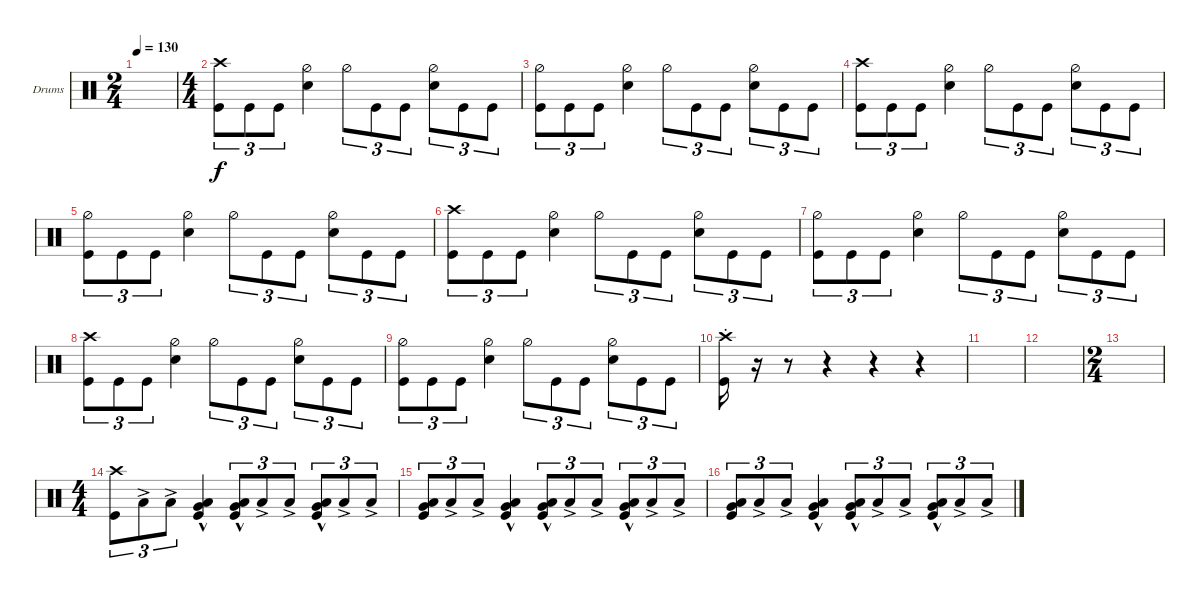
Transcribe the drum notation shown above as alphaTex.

\bracketExtendMode groupsimilarinstruments
\firstSystemTrackNameOrientation horizontal
\otherSystemsTrackNameOrientation horizontal
\track ("Drumkit" "Drums") {instrument percussion}
\staff {score}
\articulation defaults
\ts (2 4)
\tempo 130
\clef neutral
\ks c
|
\ts (4 4)
("Crash high (hit)" "Kick (hit)").8{tu (3 2)} "Kick (hit)".8{tu (3 2)} "Kick (hit)".8{tu (3 2)} ("Snare (hit) 2" "Hi-Hat (half)").4 "Hi-Hat (half)".8{tu (3 2)} "Kick (hit)".8{tu (3 2)} "Kick (hit)".8{tu (3 2)} ("Hi-Hat (half)" "Snare (hit) 2").8{tu (3 2)} "Kick (hit)".8{tu (3 2)} "Kick (hit)".8{tu (3 2)} |
("Hi-Hat (half)" "Kick (hit)").8{tu (3 2)} "Kick (hit)".8{tu (3 2)} "Kick (hit)".8{tu (3 2)} ("Snare (hit) 2" "Hi-Hat (half)").4 "Hi-Hat (half)".8{tu (3 2)} "Kick (hit)".8{tu (3 2)} "Kick (hit)".8{tu (3 2)} ("Snare (hit) 2" "Hi-Hat (half)").8{tu (3 2)} "Kick (hit)".8{tu (3 2)} "Kick (hit)".8{tu (3 2)} |
("Crash high (hit)" "Kick (hit)").8{tu (3 2)} "Kick (hit)".8{tu (3 2)} "Kick (hit)".8{tu (3 2)} ("Snare (hit) 2" "Hi-Hat (half)").4 "Hi-Hat (half)".8{tu (3 2)} "Kick (hit)".8{tu (3 2)} "Kick (hit)".8{tu (3 2)} ("Hi-Hat (half)" "Snare (hit) 2").8{tu (3 2)} "Kick (hit)".8{tu (3 2)} "Kick (hit)".8{tu (3 2)} |
("Hi-Hat (half)" "Kick (hit)").8{tu (3 2)} "Kick (hit)".8{tu (3 2)} "Kick (hit)".8{tu (3 2)} ("Snare (hit) 2" "Hi-Hat (half)").4 "Hi-Hat (half)".8{tu (3 2)} "Kick (hit)".8{tu (3 2)} "Kick (hit)".8{tu (3 2)} ("Snare (hit) 2" "Hi-Hat (half)").8{tu (3 2)} "Kick (hit)".8{tu (3 2)} "Kick (hit)".8{tu (3 2)} |
("Crash high (hit)" "Kick (hit)").8{tu (3 2)} "Kick (hit)".8{tu (3 2)} "Kick (hit)".8{tu (3 2)} ("Snare (hit) 2" "Hi-Hat (half)").4 "Hi-Hat (half)".8{tu (3 2)} "Kick (hit)".8{tu (3 2)} "Kick (hit)".8{tu (3 2)} ("Hi-Hat (half)" "Snare (hit) 2").8{tu (3 2)} "Kick (hit)".8{tu (3 2)} "Kick (hit)".8{tu (3 2)} |
("Hi-Hat (half)" "Kick (hit)").8{tu (3 2)} "Kick (hit)".8{tu (3 2)} "Kick (hit)".8{tu (3 2)} ("Snare (hit) 2" "Hi-Hat (half)").4 "Hi-Hat (half)".8{tu (3 2)} "Kick (hit)".8{tu (3 2)} "Kick (hit)".8{tu (3 2)} ("Snare (hit) 2" "Hi-Hat (half)").8{tu (3 2)} "Kick (hit)".8{tu (3 2)} "Kick (hit)".8{tu (3 2)} |
("Crash high (hit)" "Kick (hit)").8{tu (3 2)} "Kick (hit)".8{tu (3 2)} "Kick (hit)".8{tu (3 2)} ("Snare (hit) 2" "Hi-Hat (half)").4 "Hi-Hat (half)".8{tu (3 2)} "Kick (hit)".8{tu (3 2)} "Kick (hit)".8{tu (3 2)} ("Hi-Hat (half)" "Snare (hit) 2").8{tu (3 2)} "Kick (hit)".8{tu (3 2)} "Kick (hit)".8{tu (3 2)} |
("Hi-Hat (half)" "Kick (hit)").8{tu (3 2)} "Kick (hit)".8{tu (3 2)} "Kick (hit)".8{tu (3 2)} ("Snare (hit) 2" "Hi-Hat (half)").4 "Hi-Hat (half)".8{tu (3 2)} "Kick (hit)".8{tu (3 2)} "Kick (hit)".8{tu (3 2)} ("Snare (hit) 2" "Hi-Hat (half)").8{tu (3 2)} "Kick (hit)".8{tu (3 2)} "Kick (hit)".8{tu (3 2)} |
("Crash high (hit)"{st} "Kick (hit)").16 r.16 r.8 r.4 r.4 r.4 |
|
|
\ts (2 4)
|
\ts (4 4)
("Crash high (hit)" "Kick (hit)").8{tu (3 2)} "Low Tom (hit)"{ac}.8{tu (3 2)} "Low Tom (hit)"{ac}.8{tu (3 2)} ("Low Tom (hit)"{hac} "Kick (hit)" "Very Low Tom (hit)").4 ("Low Tom (hit)"{hac} "Kick (hit)" "Very Low Tom (hit)").8{tu (3 2)} "Low Tom (hit)"{ac}.8{tu (3 2)} "Low Tom (hit)"{ac}.8{tu (3 2)} ("Low Tom (hit)"{hac} "Kick (hit)" "Very Low Tom (hit)").8{tu (3 2)} "Low Tom (hit)"{ac}.8{tu (3 2)} "Low Tom (hit)"{ac}.8{tu (3 2)} |
("Kick (hit)" "Low Tom (hit)" "Very Low Tom (hit)").8{tu (3 2)} "Low Tom (hit)"{ac}.8{tu (3 2)} "Low Tom (hit)"{ac}.8{tu (3 2)} ("Low Tom (hit)"{hac} "Kick (hit)" "Very Low Tom (hit)").4 ("Low Tom (hit)"{hac} "Kick (hit)" "Very Low Tom (hit)").8{tu (3 2)} "Low Tom (hit)"{ac}.8{tu (3 2)} "Low Tom (hit)"{ac}.8{tu (3 2)} ("Low Tom (hit)"{hac} "Kick (hit)" "Very Low Tom (hit)").8{tu (3 2)} "Low Tom (hit)"{ac}.8{tu (3 2)} "Low Tom (hit)"{ac}.8{tu (3 2)} |
("Kick (hit)" "Low Tom (hit)" "Very Low Tom (hit)").8{tu (3 2)} "Low Tom (hit)"{ac}.8{tu (3 2)} "Low Tom (hit)"{ac}.8{tu (3 2)} ("Low Tom (hit)"{hac} "Kick (hit)" "Very Low Tom (hit)").4 ("Low Tom (hit)"{hac} "Kick (hit)" "Very Low Tom (hit)").8{tu (3 2)} "Low Tom (hit)"{ac}.8{tu (3 2)} "Low Tom (hit)"{ac}.8{tu (3 2)} ("Low Tom (hit)"{hac} "Kick (hit)" "Very Low Tom (hit)").8{tu (3 2)} "Low Tom (hit)"{ac}.8{tu (3 2)} "Low Tom (hit)"{ac}.8{tu (3 2)}
